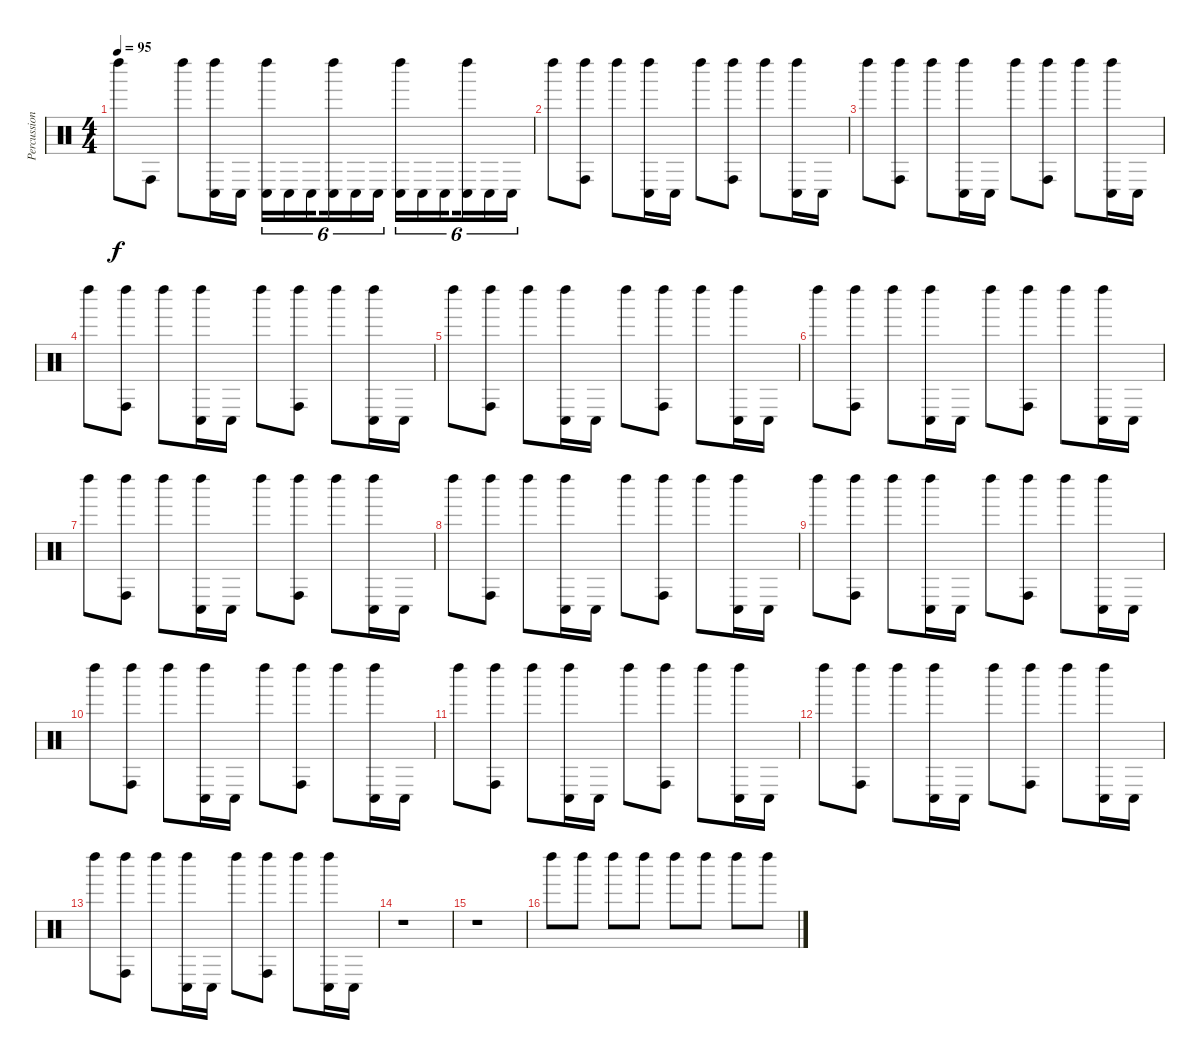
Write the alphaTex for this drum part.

\track ("Percussion" "Percussion") {instrument percussion}
\staff {score}
\articulation defaults
\ts (4 4)
\tempo 95
\clef neutral
\ks c "Left Maraca (hit)".8{dy f} "Conga high (hit)".8 "Left Maraca (hit)".8
("Left Maraca (hit)" "Conga low (hit)").16 "Conga low (hit)".16 ("Left Maraca (hit)" "Conga low (hit)").16{tu (6 4)} "Conga low (hit)".16{tu (6 4)} "Conga low (hit)".16{tu (6 4) beam splitsecondary} ("Left Maraca (hit)" "Conga low (hit)").16{tu (6 4)} "Conga low (hit)".16{tu (6 4)} "Conga low (hit)".16{tu (6 4)} ("Left Maraca (hit)" "Conga low (hit)").16{tu (6 4)} "Conga low (hit)".16{tu (6 4)} "Conga low (hit)".16{tu (6 4) beam splitsecondary} ("Left Maraca (hit)" "Conga low (hit)").16{tu (6 4)} "Conga low (hit)".16{tu (6 4)} "Conga low (hit)".16{tu (6 4)} |
"Left Maraca (hit)".8 ("Left Maraca (hit)" "Conga high (hit)").8 "Left Maraca (hit)".8 ("Left Maraca (hit)" "Conga low (hit)").16 "Conga low (hit)".16 "Left Maraca (hit)".8 ("Left Maraca (hit)" "Conga high (hit)").8 "Left Maraca (hit)".8 ("Left Maraca (hit)" "Conga low (hit)").16 "Conga low (hit)".16 |
"Left Maraca (hit)".8 ("Left Maraca (hit)" "Conga high (hit)").8 "Left Maraca (hit)".8 ("Left Maraca (hit)" "Conga low (hit)").16 "Conga low (hit)".16 "Left Maraca (hit)".8 ("Left Maraca (hit)" "Conga high (hit)").8 "Left Maraca (hit)".8 ("Left Maraca (hit)" "Conga low (hit)").16 "Conga low (hit)".16 |
"Left Maraca (hit)".8 ("Left Maraca (hit)" "Conga high (hit)").8 "Left Maraca (hit)".8 ("Left Maraca (hit)" "Conga low (hit)").16 "Conga low (hit)".16 "Left Maraca (hit)".8 ("Left Maraca (hit)" "Conga high (hit)").8 "Left Maraca (hit)".8 ("Left Maraca (hit)" "Conga low (hit)").16 "Conga low (hit)".16 |
"Left Maraca (hit)".8 ("Left Maraca (hit)" "Conga high (hit)").8 "Left Maraca (hit)".8 ("Left Maraca (hit)" "Conga low (hit)").16 "Conga low (hit)".16 "Left Maraca (hit)".8 ("Left Maraca (hit)" "Conga high (hit)").8 "Left Maraca (hit)".8 ("Left Maraca (hit)" "Conga low (hit)").16 "Conga low (hit)".16 |
"Left Maraca (hit)".8 ("Left Maraca (hit)" "Conga high (hit)").8 "Left Maraca (hit)".8 ("Left Maraca (hit)" "Conga low (hit)").16 "Conga low (hit)".16 "Left Maraca (hit)".8 ("Left Maraca (hit)" "Conga high (hit)").8 "Left Maraca (hit)".8 ("Left Maraca (hit)" "Conga low (hit)").16 "Conga low (hit)".16 |
"Left Maraca (hit)".8 ("Left Maraca (hit)" "Conga high (hit)").8 "Left Maraca (hit)".8 ("Left Maraca (hit)" "Conga low (hit)").16 "Conga low (hit)".16 "Left Maraca (hit)".8 ("Left Maraca (hit)" "Conga high (hit)").8 "Left Maraca (hit)".8 ("Left Maraca (hit)" "Conga low (hit)").16 "Conga low (hit)".16 |
"Left Maraca (hit)".8 ("Left Maraca (hit)" "Conga high (hit)").8 "Left Maraca (hit)".8 ("Left Maraca (hit)" "Conga low (hit)").16 "Conga low (hit)".16 "Left Maraca (hit)".8 ("Left Maraca (hit)" "Conga high (hit)").8 "Left Maraca (hit)".8 ("Left Maraca (hit)" "Conga low (hit)").16 "Conga low (hit)".16 |
"Left Maraca (hit)".8 ("Left Maraca (hit)" "Conga high (hit)").8 "Left Maraca (hit)".8 ("Left Maraca (hit)" "Conga low (hit)").16 "Conga low (hit)".16 "Left Maraca (hit)".8 ("Left Maraca (hit)" "Conga high (hit)").8 "Left Maraca (hit)".8 ("Left Maraca (hit)" "Conga low (hit)").16 "Conga low (hit)".16 |
"Left Maraca (hit)".8 ("Left Maraca (hit)" "Conga high (hit)").8 "Left Maraca (hit)".8 ("Left Maraca (hit)" "Conga low (hit)").16 "Conga low (hit)".16 "Left Maraca (hit)".8 ("Left Maraca (hit)" "Conga high (hit)").8 "Left Maraca (hit)".8 ("Left Maraca (hit)" "Conga low (hit)").16 "Conga low (hit)".16 |
"Left Maraca (hit)".8 ("Left Maraca (hit)" "Conga high (hit)").8 "Left Maraca (hit)".8 ("Left Maraca (hit)" "Conga low (hit)").16 "Conga low (hit)".16 "Left Maraca (hit)".8 ("Left Maraca (hit)" "Conga high (hit)").8 "Left Maraca (hit)".8 ("Left Maraca (hit)" "Conga low (hit)").16 "Conga low (hit)".16 |
"Left Maraca (hit)".8 ("Left Maraca (hit)" "Conga high (hit)").8 "Left Maraca (hit)".8 ("Left Maraca (hit)" "Conga low (hit)").16 "Conga low (hit)".16 "Left Maraca (hit)".8 ("Left Maraca (hit)" "Conga high (hit)").8 "Left Maraca (hit)".8 ("Left Maraca (hit)" "Conga low (hit)").16 "Conga low (hit)".16 |
"Left Maraca (hit)".8 ("Left Maraca (hit)" "Conga high (hit)").8 "Left Maraca (hit)".8 ("Left Maraca (hit)" "Conga low (hit)").16 "Conga low (hit)".16 "Left Maraca (hit)".8 ("Left Maraca (hit)" "Conga high (hit)").8 "Left Maraca (hit)".8 ("Left Maraca (hit)" "Conga low (hit)").16 "Conga low (hit)".16 |
r.1 |
r.1 |
"Left Maraca (hit)".8 "Left Maraca (hit)".8 "Left Maraca (hit)".8 "Left Maraca (hit)".8 "Left Maraca (hit)".8 "Left Maraca (hit)".8 "Left Maraca (hit)".8 "Left Maraca (hit)".8
